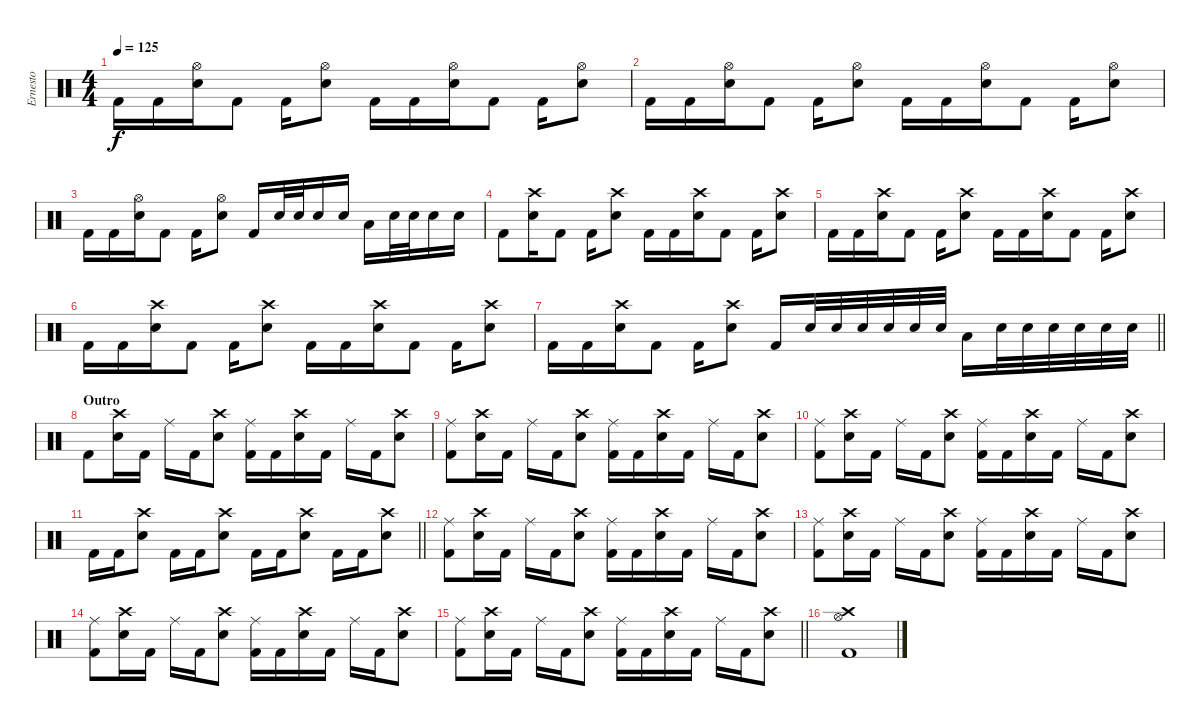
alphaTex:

\track ("Ernesto" "Ernesto") {instrument percussion}
\staff {score}
\articulation defaults
\ts (4 4)
\tempo 125
\clef neutral
\ks c "Kick (hit) 2".16{dy f} "Kick (hit) 2".16
("Hi-Hat (open)" "Electric Snare (hit)").16 "Kick (hit) 2".8 "Kick (hit) 2".16 ("Hi-Hat (open)" "Electric Snare (hit)").8 "Kick (hit) 2".16 "Kick (hit) 2".16 ("Hi-Hat (open)" "Electric Snare (hit)").16 "Kick (hit) 2".8 "Kick (hit) 2".16 ("Hi-Hat (open)" "Electric Snare (hit)").8 |
"Kick (hit) 2".16 "Kick (hit) 2".16 ("Hi-Hat (open)" "Electric Snare (hit)").16 "Kick (hit) 2".8 "Kick (hit) 2".16 ("Hi-Hat (open)" "Electric Snare (hit)").8 "Kick (hit) 2".16 "Kick (hit) 2".16 ("Hi-Hat (open)" "Electric Snare (hit)").16 "Kick (hit) 2".8 "Kick (hit) 2".16 ("Hi-Hat (open)" "Electric Snare (hit)").8 |
"Kick (hit) 2".16 "Kick (hit) 2".16 ("Hi-Hat (open)" "Electric Snare (hit)").16 "Kick (hit) 2".8 "Kick (hit) 2".16 ("Hi-Hat (open)" "Electric Snare (hit)").8 "Kick (hit) 2".16 "Electric Snare (hit)".32 "Electric Snare (hit)".32 "Electric Snare (hit)".16 "Electric Snare (hit)".16 "Low Tom (hit)".16 "Electric Snare (hit)".32 "Electric Snare (hit)".32 "Electric Snare (hit)".16 "Electric Snare (hit)".16 |
"Kick (hit) 2".8 ("Crash high (hit)" "Electric Snare (hit)").16 "Kick (hit) 2".8 "Kick (hit) 2".16 ("Crash high (hit)" "Electric Snare (hit)").8 "Kick (hit) 2".16 "Kick (hit) 2".16 ("Crash high (hit)" "Electric Snare (hit)").16 "Kick (hit) 2".8 "Kick (hit) 2".16 ("Crash high (hit)" "Electric Snare (hit)").8 |
"Kick (hit) 2".16 "Kick (hit) 2".16 ("Crash high (hit)" "Electric Snare (hit)").16 "Kick (hit) 2".8 "Kick (hit) 2".16 ("Crash high (hit)" "Electric Snare (hit)").8 "Kick (hit) 2".16 "Kick (hit) 2".16 ("Crash high (hit)" "Electric Snare (hit)").16 "Kick (hit) 2".8 "Kick (hit) 2".16 ("Crash high (hit)" "Electric Snare (hit)").8 |
"Kick (hit) 2".16 "Kick (hit) 2".16 ("Crash high (hit)" "Electric Snare (hit)").16 "Kick (hit) 2".8 "Kick (hit) 2".16 ("Crash high (hit)" "Electric Snare (hit)").8 "Kick (hit) 2".16 "Kick (hit) 2".16 ("Crash high (hit)" "Electric Snare (hit)").16 "Kick (hit) 2".8 "Kick (hit) 2".16 ("Crash high (hit)" "Electric Snare (hit)").8 |
\barLineRight lightlight "Kick (hit) 2".16 "Kick (hit) 2".16
("Crash high (hit)" "Electric Snare (hit)").16 "Kick (hit) 2".8 "Kick (hit) 2".16 ("Crash high (hit)" "Electric Snare (hit)").8 "Kick (hit) 2".16 "Electric Snare (hit)".32 "Electric Snare (hit)".32 "Electric Snare (hit)".32 "Electric Snare (hit)".32 "Electric Snare (hit)".32 "Electric Snare (hit)".32 "Low Tom (hit)".16 "Electric Snare (hit)".32 "Electric Snare (hit)".32 "Electric Snare (hit)".32 "Electric Snare (hit)".32 "Electric Snare (hit)".32 "Electric Snare (hit)".32 |
\section ("" "Outro")
"Kick (hit) 2".8 ("Crash high (hit)" "Electric Snare (hit)").16 "Kick (hit) 2".16 "Ride (middle)".16 "Kick (hit) 2".16 ("Crash high (hit)" "Electric Snare (hit)").8 ("Ride (middle)" "Kick (hit) 2").16 "Kick (hit) 2".16 ("Crash high (hit)" "Electric Snare (hit)").16 "Kick (hit) 2".16 "Ride (middle)".16 "Kick (hit) 2".16 ("Crash high (hit)" "Electric Snare (hit)").8 |
("Ride (middle)" "Kick (hit) 2").8 ("Crash high (hit)" "Electric Snare (hit)").16 "Kick (hit) 2".16 "Ride (middle)".16 "Kick (hit) 2".16 ("Crash high (hit)" "Electric Snare (hit)").8 ("Ride (middle)" "Kick (hit) 2").16 "Kick (hit) 2".16 ("Crash high (hit)" "Electric Snare (hit)").16 "Kick (hit) 2".16 "Ride (middle)".16 "Kick (hit) 2".16 ("Crash high (hit)" "Electric Snare (hit)").8 |
("Ride (middle)" "Kick (hit) 2").8 ("Crash high (hit)" "Electric Snare (hit)").16 "Kick (hit) 2".16 "Ride (middle)".16 "Kick (hit) 2".16 ("Crash high (hit)" "Electric Snare (hit)").8 ("Ride (middle)" "Kick (hit) 2").16 "Kick (hit) 2".16 ("Crash high (hit)" "Electric Snare (hit)").16 "Kick (hit) 2".16 "Ride (middle)".16 "Kick (hit) 2".16 ("Crash high (hit)" "Electric Snare (hit)").8 |
\barLineRight lightlight "Kick (hit) 2".16 "Kick (hit) 2".16
("Crash high (hit)" "Electric Snare (hit)").8 "Kick (hit) 2".16 "Kick (hit) 2".16 ("Crash high (hit)" "Electric Snare (hit)").8 "Kick (hit) 2".16 "Kick (hit) 2".16 ("Crash high (hit)" "Electric Snare (hit)").8 "Kick (hit) 2".16 "Kick (hit) 2".16 ("Crash high (hit)" "Electric Snare (hit)").8 |
("Ride (middle)" "Kick (hit) 2").8 ("Crash high (hit)" "Electric Snare (hit)").16 "Kick (hit) 2".16 "Ride (middle)".16 "Kick (hit) 2".16 ("Crash high (hit)" "Electric Snare (hit)").8 ("Ride (middle)" "Kick (hit) 2").16 "Kick (hit) 2".16 ("Crash high (hit)" "Electric Snare (hit)").16 "Kick (hit) 2".16 "Ride (middle)".16 "Kick (hit) 2".16 ("Crash high (hit)" "Electric Snare (hit)").8 |
("Ride (middle)" "Kick (hit) 2").8 ("Crash high (hit)" "Electric Snare (hit)").16 "Kick (hit) 2".16 "Ride (middle)".16 "Kick (hit) 2".16 ("Crash high (hit)" "Electric Snare (hit)").8 ("Ride (middle)" "Kick (hit) 2").16 "Kick (hit) 2".16 ("Crash high (hit)" "Electric Snare (hit)").16 "Kick (hit) 2".16 "Ride (middle)".16 "Kick (hit) 2".16 ("Crash high (hit)" "Electric Snare (hit)").8 |
("Ride (middle)" "Kick (hit) 2").8 ("Crash high (hit)" "Electric Snare (hit)").16 "Kick (hit) 2".16 "Ride (middle)".16 "Kick (hit) 2".16 ("Crash high (hit)" "Electric Snare (hit)").8 ("Ride (middle)" "Kick (hit) 2").16 "Kick (hit) 2".16 ("Crash high (hit)" "Electric Snare (hit)").16 "Kick (hit) 2".16 "Ride (middle)".16 "Kick (hit) 2".16 ("Crash high (hit)" "Electric Snare (hit)").8 |
\barLineRight lightlight
("Ride (middle)" "Kick (hit) 2").8 ("Crash high (hit)" "Electric Snare (hit)").16 "Kick (hit) 2".16 "Ride (middle)".16 "Kick (hit) 2".16 ("Crash high (hit)" "Electric Snare (hit)").8 ("Ride (middle)" "Kick (hit) 2").16 "Kick (hit) 2".16 ("Crash high (hit)" "Electric Snare (hit)").16 "Kick (hit) 2".16 "Ride (middle)".16 "Kick (hit) 2".16 ("Crash high (hit)" "Electric Snare (hit)").8 |
("Crash high (hit)" "Hi-Hat (open)" "Kick (hit) 2").1{volume 10}
